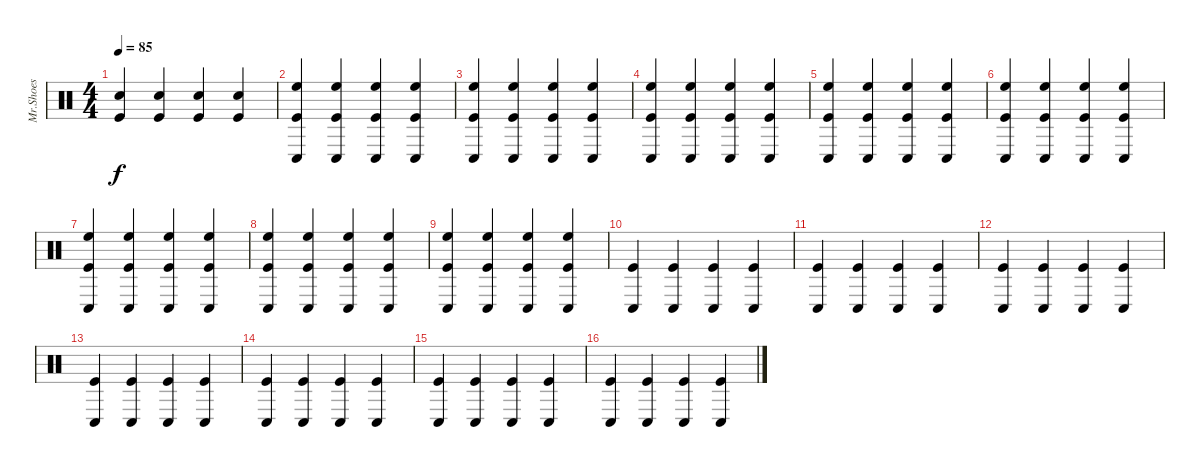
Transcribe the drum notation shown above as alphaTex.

\track ("Mr.Shoes" "Mr.Shoes") {instrument percussion}
\staff {score}
\articulation defaults
\ts (4 4)
\tempo 85
\clef neutral
\ks c
("Snare (hit) 2" "Kick (hit)").4{dy f} ("Snare (hit) 2" "Kick (hit)").4 ("Snare (hit) 2" "Kick (hit)").4 ("Snare (hit) 2" "Kick (hit)").4 |
("High Floor Tom (hit)" "Kick (hit)" "Conga low (hit)").4 ("High Floor Tom (hit)" "Kick (hit)" "Conga low (hit)").4 ("High Floor Tom (hit)" "Kick (hit)" "Conga low (hit)").4 ("High Floor Tom (hit)" "Kick (hit)" "Conga low (hit)").4 |
("High Floor Tom (hit)" "Kick (hit)" "Conga low (hit)").4 ("High Floor Tom (hit)" "Kick (hit)" "Conga low (hit)").4 ("High Floor Tom (hit)" "Kick (hit)" "Conga low (hit)").4 ("High Floor Tom (hit)" "Kick (hit)" "Conga low (hit)").4 |
("High Floor Tom (hit)" "Kick (hit)" "Conga low (hit)").4 ("High Floor Tom (hit)" "Kick (hit)" "Conga low (hit)").4 ("High Floor Tom (hit)" "Kick (hit)" "Conga low (hit)").4 ("High Floor Tom (hit)" "Kick (hit)" "Conga low (hit)").4 |
("High Floor Tom (hit)" "Kick (hit)" "Conga low (hit)").4 ("High Floor Tom (hit)" "Kick (hit)" "Conga low (hit)").4 ("High Floor Tom (hit)" "Kick (hit)" "Conga low (hit)").4 ("High Floor Tom (hit)" "Kick (hit)" "Conga low (hit)").4 |
("High Floor Tom (hit)" "Kick (hit)" "Conga low (hit)").4 ("High Floor Tom (hit)" "Kick (hit)" "Conga low (hit)").4 ("High Floor Tom (hit)" "Kick (hit)" "Conga low (hit)").4 ("High Floor Tom (hit)" "Kick (hit)" "Conga low (hit)").4 |
("High Floor Tom (hit)" "Kick (hit)" "Conga low (hit)").4 ("High Floor Tom (hit)" "Kick (hit)" "Conga low (hit)").4 ("High Floor Tom (hit)" "Kick (hit)" "Conga low (hit)").4 ("High Floor Tom (hit)" "Kick (hit)" "Conga low (hit)").4 |
("High Floor Tom (hit)" "Kick (hit)" "Conga low (hit)").4 ("High Floor Tom (hit)" "Kick (hit)" "Conga low (hit)").4 ("High Floor Tom (hit)" "Kick (hit)" "Conga low (hit)").4 ("High Floor Tom (hit)" "Kick (hit)" "Conga low (hit)").4 |
("High Floor Tom (hit)" "Kick (hit)" "Conga low (hit)").4 ("High Floor Tom (hit)" "Kick (hit)" "Conga low (hit)").4 ("High Floor Tom (hit)" "Kick (hit)" "Conga low (hit)").4 ("High Floor Tom (hit)" "Kick (hit)" "Conga low (hit)").4 |
("Kick (hit)" "Conga low (hit)").4 ("Kick (hit)" "Conga low (hit)").4 ("Kick (hit)" "Conga low (hit)").4 ("Kick (hit)" "Conga low (hit)").4 |
("Kick (hit)" "Conga low (hit)").4 ("Kick (hit)" "Conga low (hit)").4 ("Kick (hit)" "Conga low (hit)").4 ("Kick (hit)" "Conga low (hit)").4 |
("Kick (hit)" "Conga low (hit)").4 ("Kick (hit)" "Conga low (hit)").4 ("Kick (hit)" "Conga low (hit)").4 ("Kick (hit)" "Conga low (hit)").4 |
("Kick (hit)" "Conga low (hit)").4 ("Kick (hit)" "Conga low (hit)").4 ("Kick (hit)" "Conga low (hit)").4 ("Kick (hit)" "Conga low (hit)").4 |
("Kick (hit)" "Conga low (hit)").4 ("Kick (hit)" "Conga low (hit)").4 ("Kick (hit)" "Conga low (hit)").4 ("Kick (hit)" "Conga low (hit)").4 |
("Kick (hit)" "Conga low (hit)").4 ("Kick (hit)" "Conga low (hit)").4 ("Kick (hit)" "Conga low (hit)").4 ("Kick (hit)" "Conga low (hit)").4 |
("Kick (hit)" "Conga low (hit)").4 ("Kick (hit)" "Conga low (hit)").4 ("Kick (hit)" "Conga low (hit)").4 ("Kick (hit)" "Conga low (hit)").4
